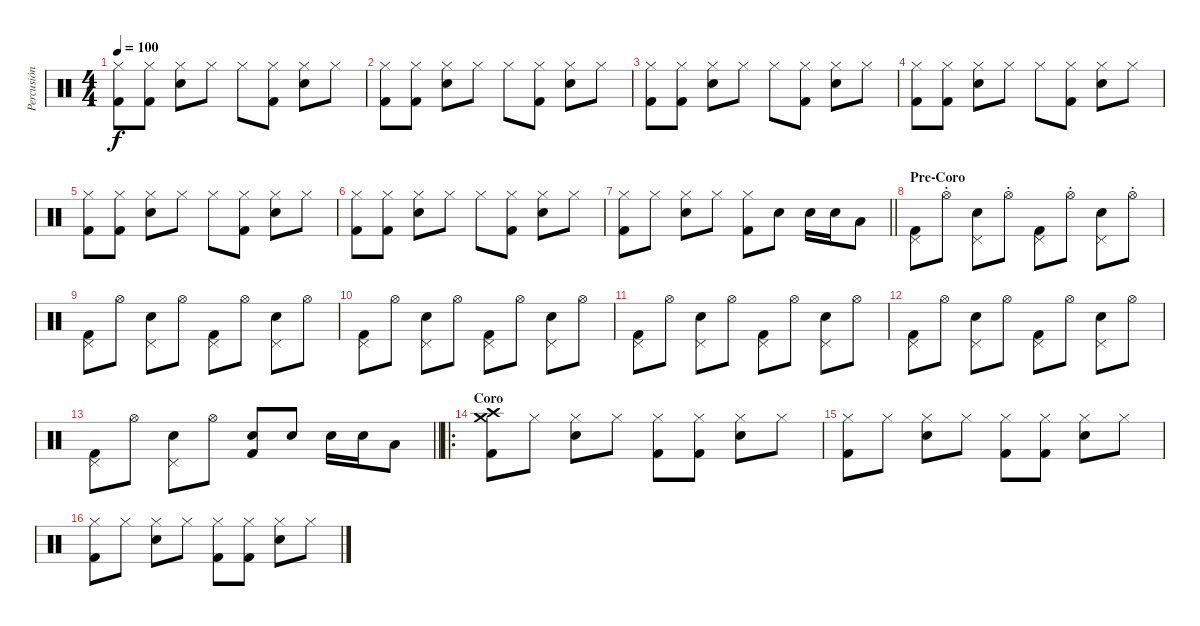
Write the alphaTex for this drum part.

\track ("Percusión" "Percusión") {instrument percussion}
\staff {score}
\articulation defaults
\ts (4 4)
\tempo 100
\clef neutral
\ks c
("Hi-Hat (closed)" "Kick (hit) 2").8{dy f} ("Hi-Hat (closed)" "Kick (hit) 2").8 ("Hi-Hat (closed)" "Snare (hit) 2").8 "Hi-Hat (closed)".8 "Hi-Hat (closed)".8 ("Hi-Hat (closed)" "Kick (hit) 2").8 ("Hi-Hat (closed)" "Snare (hit) 2").8 "Hi-Hat (closed)".8 |
("Hi-Hat (closed)" "Kick (hit) 2").8 ("Hi-Hat (closed)" "Kick (hit) 2").8 ("Hi-Hat (closed)" "Snare (hit) 2").8 "Hi-Hat (closed)".8 "Hi-Hat (closed)".8 ("Hi-Hat (closed)" "Kick (hit) 2").8 ("Hi-Hat (closed)" "Snare (hit) 2").8 "Hi-Hat (closed)".8 |
("Hi-Hat (closed)" "Kick (hit) 2").8 ("Hi-Hat (closed)" "Kick (hit) 2").8 ("Hi-Hat (closed)" "Snare (hit) 2").8 "Hi-Hat (closed)".8 "Hi-Hat (closed)".8 ("Hi-Hat (closed)" "Kick (hit) 2").8 ("Hi-Hat (closed)" "Snare (hit) 2").8 "Hi-Hat (closed)".8 |
("Hi-Hat (closed)" "Kick (hit) 2").8 ("Hi-Hat (closed)" "Kick (hit) 2").8 ("Hi-Hat (closed)" "Snare (hit) 2").8 "Hi-Hat (closed)".8 "Hi-Hat (closed)".8 ("Hi-Hat (closed)" "Kick (hit) 2").8 ("Hi-Hat (closed)" "Snare (hit) 2").8 "Hi-Hat (closed)".8 |
("Hi-Hat (closed)" "Kick (hit) 2").8 ("Hi-Hat (closed)" "Kick (hit) 2").8 ("Hi-Hat (closed)" "Snare (hit) 2").8 "Hi-Hat (closed)".8 "Hi-Hat (closed)".8 ("Hi-Hat (closed)" "Kick (hit) 2").8 ("Hi-Hat (closed)" "Snare (hit) 2").8 "Hi-Hat (closed)".8 |
("Hi-Hat (closed)" "Kick (hit) 2").8 ("Hi-Hat (closed)" "Kick (hit) 2").8 ("Hi-Hat (closed)" "Snare (hit) 2").8 "Hi-Hat (closed)".8 "Hi-Hat (closed)".8 ("Hi-Hat (closed)" "Kick (hit) 2").8 ("Hi-Hat (closed)" "Snare (hit) 2").8 "Hi-Hat (closed)".8 |
\barLineRight lightlight
("Hi-Hat (closed)" "Kick (hit) 2").8 "Hi-Hat (closed)".8 ("Hi-Hat (closed)" "Snare (hit) 2").8 "Hi-Hat (closed)".8 ("Hi-Hat (closed)" "Kick (hit) 2").8 "Snare (hit) 2".8 "Snare (hit) 2".16 "Snare (hit) 2".16 "Low Tom (hit)".8 |
\section ("" "Pre-Coro")
("Pedal Hi-Hat (hit)" "Kick (hit) 2").8 "Hi-Hat (open)"{st}.8 ("Pedal Hi-Hat (hit)" "Snare (hit) 2").8 "Hi-Hat (open)"{st}.8 ("Pedal Hi-Hat (hit)" "Kick (hit) 2").8 "Hi-Hat (open)"{st}.8 ("Pedal Hi-Hat (hit)" "Snare (hit) 2").8 "Hi-Hat (open)"{st}.8 |
("Pedal Hi-Hat (hit)" "Kick (hit) 2").8 "Hi-Hat (open)".8 ("Pedal Hi-Hat (hit)" "Snare (hit) 2").8 "Hi-Hat (open)".8 ("Pedal Hi-Hat (hit)" "Kick (hit) 2").8 "Hi-Hat (open)".8 ("Pedal Hi-Hat (hit)" "Snare (hit) 2").8 "Hi-Hat (open)".8 |
("Pedal Hi-Hat (hit)" "Kick (hit) 2").8 "Hi-Hat (open)".8 ("Pedal Hi-Hat (hit)" "Snare (hit) 2").8 "Hi-Hat (open)".8 ("Pedal Hi-Hat (hit)" "Kick (hit) 2").8 "Hi-Hat (open)".8 ("Pedal Hi-Hat (hit)" "Snare (hit) 2").8 "Hi-Hat (open)".8 |
("Pedal Hi-Hat (hit)" "Kick (hit) 2").8 "Hi-Hat (open)".8 ("Pedal Hi-Hat (hit)" "Snare (hit) 2").8 "Hi-Hat (open)".8 ("Pedal Hi-Hat (hit)" "Kick (hit) 2").8 "Hi-Hat (open)".8 ("Pedal Hi-Hat (hit)" "Snare (hit) 2").8 "Hi-Hat (open)".8 |
("Pedal Hi-Hat (hit)" "Kick (hit) 2").8 "Hi-Hat (open)".8 ("Pedal Hi-Hat (hit)" "Snare (hit) 2").8 "Hi-Hat (open)".8 ("Pedal Hi-Hat (hit)" "Kick (hit) 2").8 "Hi-Hat (open)".8 ("Pedal Hi-Hat (hit)" "Snare (hit) 2").8 "Hi-Hat (open)".8 |
\barLineRight lightlight
("Pedal Hi-Hat (hit)" "Kick (hit) 2").8 "Hi-Hat (open)".8 ("Pedal Hi-Hat (hit)" "Snare (hit) 2").8 "Hi-Hat (open)".8 ("Snare (hit) 2" "Kick (hit) 2").8 "Snare (hit) 2".8 "Snare (hit) 2".16 "Snare (hit) 2".16 "Low Tom (hit)".8 |
\ro
\section ("" "Coro")
("Crash medium (hit)" "Crash high (hit)" "Kick (hit) 2").8 "Hi-Hat (closed)".8 ("Hi-Hat (closed)" "Snare (hit) 2").8 "Hi-Hat (closed)".8 ("Hi-Hat (closed)" "Kick (hit) 2").8 ("Hi-Hat (closed)" "Kick (hit) 2").8 ("Hi-Hat (closed)" "Snare (hit) 2").8 "Hi-Hat (closed)".8 |
("Hi-Hat (closed)" "Kick (hit) 2").8 "Hi-Hat (closed)".8 ("Hi-Hat (closed)" "Snare (hit) 2").8 "Hi-Hat (closed)".8 ("Hi-Hat (closed)" "Kick (hit) 2").8 ("Hi-Hat (closed)" "Kick (hit) 2").8 ("Hi-Hat (closed)" "Snare (hit) 2").8 "Hi-Hat (closed)".8 |
("Hi-Hat (closed)" "Kick (hit) 2").8 "Hi-Hat (closed)".8 ("Hi-Hat (closed)" "Snare (hit) 2").8 "Hi-Hat (closed)".8 ("Hi-Hat (closed)" "Kick (hit) 2").8 ("Hi-Hat (closed)" "Kick (hit) 2").8 ("Hi-Hat (closed)" "Snare (hit) 2").8 "Hi-Hat (closed)".8
